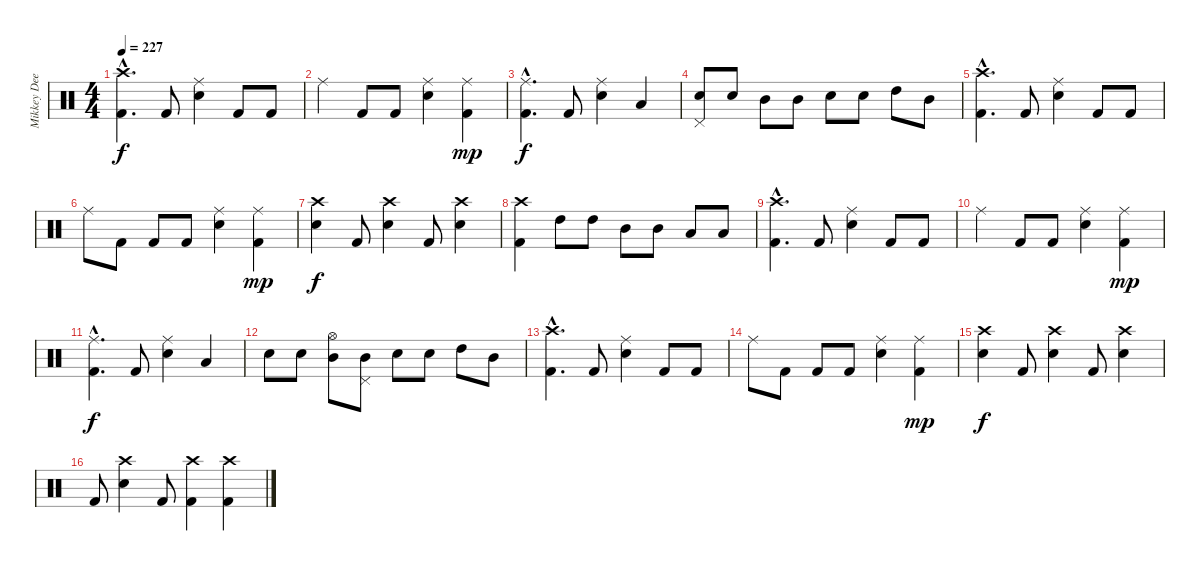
\track ("Mikkey Dee" "Mikkey Dee") {instrument percussion}
\staff {score}
\articulation defaults
\ts (4 4)
\tempo 227
\clef neutral
\ks c
("Kick (hit) 2"{hac} "Crash high (hit)").4{d dy f} "Kick (hit) 2".8 ("Electric Snare (hit)" "Ride (middle)").4 "Kick (hit) 2".8 "Kick (hit) 2".8 |
"Ride (middle)".4 "Kick (hit) 2".8 "Kick (hit) 2".8 ("Ride (middle)" "Electric Snare (hit)").4 ("Ride (middle)" "Kick (hit) 2").4{dy mp} |
("Ride (middle)" "Kick (hit) 2"{hac}).4{d dy f} "Kick (hit) 2".8 ("Ride (middle)" "Electric Snare (hit)").4 "Low Floor Tom (hit)".4 |
("Pedal Hi-Hat (hit)" "Electric Snare (hit)").8 "Electric Snare (hit)".8 "Mid Tom (hit)".8 "Mid Tom (hit)".8 "Electric Snare (hit)".8 "Electric Snare (hit)".8 "High Tom (hit)".8 "Mid Tom (hit)".8 |
("Kick (hit) 2"{hac} "Crash high (hit)").4{d} "Kick (hit) 2".8 ("Ride (middle)" "Electric Snare (hit)").4 "Kick (hit) 2".8 "Kick (hit) 2".8 |
"Ride (middle)".8 "Kick (hit) 2".8 "Kick (hit) 2".8 "Kick (hit) 2".8 ("Ride (middle)" "Electric Snare (hit)").4 ("Ride (middle)" "Kick (hit) 2").4{dy mp} |
("Crash high (hit)" "Electric Snare (hit)").4{dy f} "Kick (hit) 2".8 ("Crash high (hit)" "Electric Snare (hit)").4 "Kick (hit) 2".8 ("Crash high (hit)" "Electric Snare (hit)").4 |
("Kick (hit) 2" "Crash high (hit)").4 "High Tom (hit)".8 "High Tom (hit)".8 "Mid Tom (hit)".8 "Mid Tom (hit)".8 "Low Tom (hit)".8 "Low Tom (hit)".8 |
("Crash high (hit)" "Kick (hit) 2"{hac}).4{d} "Kick (hit) 2".8 ("Electric Snare (hit)" "Ride (middle)").4 "Kick (hit) 2".8 "Kick (hit) 2".8 |
"Ride (middle)".4 "Kick (hit) 2".8 "Kick (hit) 2".8 ("Ride (middle)" "Electric Snare (hit)").4 ("Kick (hit) 2" "Ride (middle)").4{dy mp} |
("Kick (hit) 2"{hac} "Ride (middle)").4{d dy f} "Kick (hit) 2".8 ("Ride (middle)" "Electric Snare (hit)").4 "Low Floor Tom (hit)".4 |
"Electric Snare (hit)".8 "Electric Snare (hit)".8 ("Mid Tom (hit)" "Hi-Hat (open)").8 ("Mid Tom (hit)" "Pedal Hi-Hat (hit)").8 "Electric Snare (hit)".8 "Electric Snare (hit)".8 "High Tom (hit)".8 "Mid Tom (hit)".8 |
("Crash high (hit)" "Kick (hit) 2"{hac}).4{d} "Kick (hit) 2".8 ("Electric Snare (hit)" "Ride (middle)").4 "Kick (hit) 2".8 "Kick (hit) 2".8 |
"Ride (middle)".8 "Kick (hit) 2".8 "Kick (hit) 2".8 "Kick (hit) 2".8 ("Ride (middle)" "Electric Snare (hit)").4 ("Kick (hit) 2" "Ride (middle)").4{dy mp} |
("Crash high (hit)" "Electric Snare (hit)").4{dy f} "Kick (hit) 2".8 ("Electric Snare (hit)" "Crash high (hit)").4 "Kick (hit) 2".8 ("Crash high (hit)" "Electric Snare (hit)").4 |
"Kick (hit) 2".8 ("Crash high (hit)" "Electric Snare (hit)").4 "Kick (hit) 2".8 ("Crash high (hit)" "Kick (hit) 2").4 ("Crash high (hit)" "Kick (hit) 2").4
